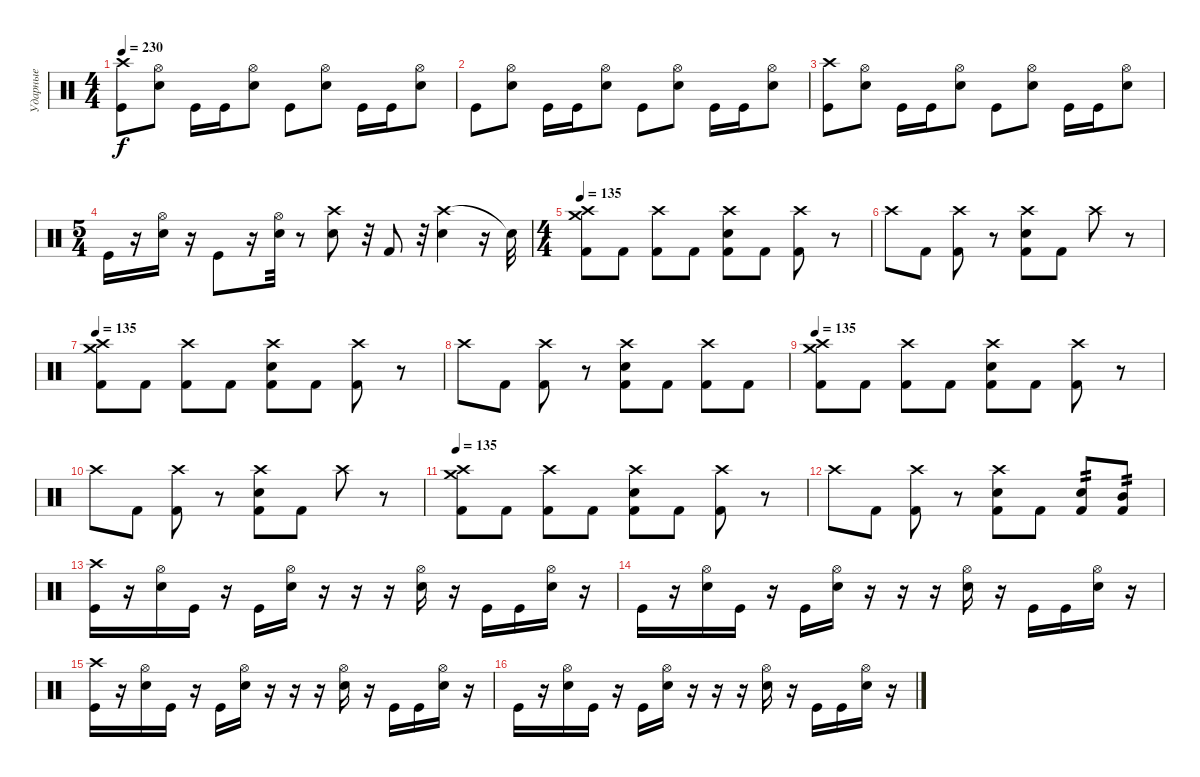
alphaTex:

\track ("Ударные" "Ударные") {instrument percussion}
\staff {score}
\articulation defaults
\ts (4 4)
\tempo 230
\clef neutral
\ks c
("Crash high (hit)" "Kick (hit)").8{dy f} ("Hi-Hat (open)" "Electric Snare (hit)").8 "Kick (hit)".16 "Kick (hit)".16 ("Hi-Hat (open)" "Electric Snare (hit)").8 "Kick (hit)".8 ("Hi-Hat (open)" "Electric Snare (hit)").8 "Kick (hit)".16 "Kick (hit)".16 ("Hi-Hat (open)" "Electric Snare (hit)").8 |
"Kick (hit)".8 ("Hi-Hat (open)" "Electric Snare (hit)").8 "Kick (hit)".16 "Kick (hit)".16 ("Hi-Hat (open)" "Electric Snare (hit)").8 "Kick (hit)".8 ("Hi-Hat (open)" "Electric Snare (hit)").8 "Kick (hit)".16 "Kick (hit)".16 ("Hi-Hat (open)" "Electric Snare (hit)").8 |
("Crash high (hit)" "Kick (hit)").8 ("Hi-Hat (open)" "Electric Snare (hit)").8 "Kick (hit)".16 "Kick (hit)".16 ("Hi-Hat (open)" "Electric Snare (hit)").8 "Kick (hit)".8 ("Hi-Hat (open)" "Electric Snare (hit)").8 "Kick (hit)".16 "Kick (hit)".16 ("Hi-Hat (open)" "Electric Snare (hit)").8 |
\ts (5 4)
"Kick (hit)".16 r.16 ("Hi-Hat (open)" "Electric Snare (hit)").16 r.16 "Kick (hit)".8 r.16 ("Hi-Hat (open)" "Electric Snare (hit)").32 r.8 ("Crash high (hit)" "Snare (hit) 2").8 r.32 "Kick (hit) 2".8 r.32 ("Crash high (hit)" "Snare (hit) 2").4 r.16 "Snare (hit)"{t}.32 |
\ts (4 4)
\tempo 135
("Crash medium (hit)" "Crash high (hit)" "Kick (hit) 2").8 "Kick (hit) 2".8 ("Crash high (hit)" "Kick (hit) 2").8 "Kick (hit) 2".8 ("Crash high (hit)" "Electric Snare (hit)" "Kick (hit) 2").8 "Kick (hit) 2".8 ("Crash high (hit)" "Kick (hit) 2").8 r.8 |
"Crash high (hit)".8 "Kick (hit) 2".8 ("Crash high (hit)" "Kick (hit) 2").8 r.8 ("Crash high (hit)" "Electric Snare (hit)" "Kick (hit) 2").8 "Kick (hit) 2".8 "Crash high (hit)".8 r.8 |
\tempo 135
("Crash medium (hit)" "Crash high (hit)" "Kick (hit) 2").8 "Kick (hit) 2".8 ("Crash high (hit)" "Kick (hit) 2").8 "Kick (hit) 2".8 ("Crash high (hit)" "Electric Snare (hit)" "Kick (hit) 2").8 "Kick (hit) 2".8 ("Crash high (hit)" "Kick (hit) 2").8 r.8 |
"Crash high (hit)".8 "Kick (hit) 2".8 ("Crash high (hit)" "Kick (hit) 2").8 r.8 ("Crash high (hit)" "Electric Snare (hit)" "Kick (hit) 2").8 "Kick (hit) 2".8 ("Crash high (hit)" "Kick (hit) 2").8 "Kick (hit) 2".8 |
\tempo 135
("Crash medium (hit)" "Crash high (hit)" "Kick (hit) 2").8 "Kick (hit) 2".8 ("Crash high (hit)" "Kick (hit) 2").8 "Kick (hit) 2".8 ("Crash high (hit)" "Electric Snare (hit)" "Kick (hit) 2").8 "Kick (hit) 2".8 ("Crash high (hit)" "Kick (hit) 2").8 r.8 |
"Crash high (hit)".8 "Kick (hit) 2".8 ("Crash high (hit)" "Kick (hit) 2").8 r.8 ("Crash high (hit)" "Electric Snare (hit)" "Kick (hit) 2").8 "Kick (hit) 2".8 "Crash high (hit)".8 r.8 |
\tempo 135
("Crash medium (hit)" "Crash high (hit)" "Kick (hit) 2").8 "Kick (hit) 2".8 ("Crash high (hit)" "Kick (hit) 2").8 "Kick (hit) 2".8 ("Crash high (hit)" "Electric Snare (hit)" "Kick (hit) 2").8 "Kick (hit) 2".8 ("Crash high (hit)" "Kick (hit) 2").8 r.8 |
"Crash high (hit)".8 "Kick (hit) 2".8 ("Crash high (hit)" "Kick (hit) 2").8 r.8 ("Crash high (hit)" "Electric Snare (hit)" "Kick (hit) 2").8 "Kick (hit) 2".8 ("Electric Snare (hit)" "Kick (hit) 2").8{tp 2} ("Mid Tom (hit)" "Kick (hit) 2").8{tp 2} |
("Crash high (hit)" "Kick (hit)").16 r.16 ("Hi-Hat (open)" "Electric Snare (hit)").16 "Kick (hit)".16 r.16 "Kick (hit)".16 ("Hi-Hat (open)" "Electric Snare (hit)").16 r.16 r.16 r.16 ("Hi-Hat (open)" "Electric Snare (hit)").16 r.16 "Kick (hit)".16 "Kick (hit)".16 ("Hi-Hat (open)" "Electric Snare (hit)").16 r.16 |
"Kick (hit)".16 r.16 ("Hi-Hat (open)" "Electric Snare (hit)").16 "Kick (hit)".16 r.16 "Kick (hit)".16 ("Hi-Hat (open)" "Electric Snare (hit)").16 r.16 r.16 r.16 ("Hi-Hat (open)" "Electric Snare (hit)").16 r.16 "Kick (hit)".16 "Kick (hit)".16 ("Hi-Hat (open)" "Electric Snare (hit)").16 r.16 |
("Crash high (hit)" "Kick (hit)").16 r.16 ("Hi-Hat (open)" "Electric Snare (hit)").16 "Kick (hit)".16 r.16 "Kick (hit)".16 ("Hi-Hat (open)" "Electric Snare (hit)").16 r.16 r.16 r.16 ("Hi-Hat (open)" "Electric Snare (hit)").16 r.16 "Kick (hit)".16 "Kick (hit)".16 ("Hi-Hat (open)" "Electric Snare (hit)").16 r.16 |
"Kick (hit)".16 r.16 ("Hi-Hat (open)" "Electric Snare (hit)").16 "Kick (hit)".16 r.16 "Kick (hit)".16 ("Hi-Hat (open)" "Electric Snare (hit)").16 r.16 r.16 r.16 ("Hi-Hat (open)" "Electric Snare (hit)").16 r.16 "Kick (hit)".16 "Kick (hit)".16 ("Hi-Hat (open)" "Electric Snare (hit)").16 r.16
